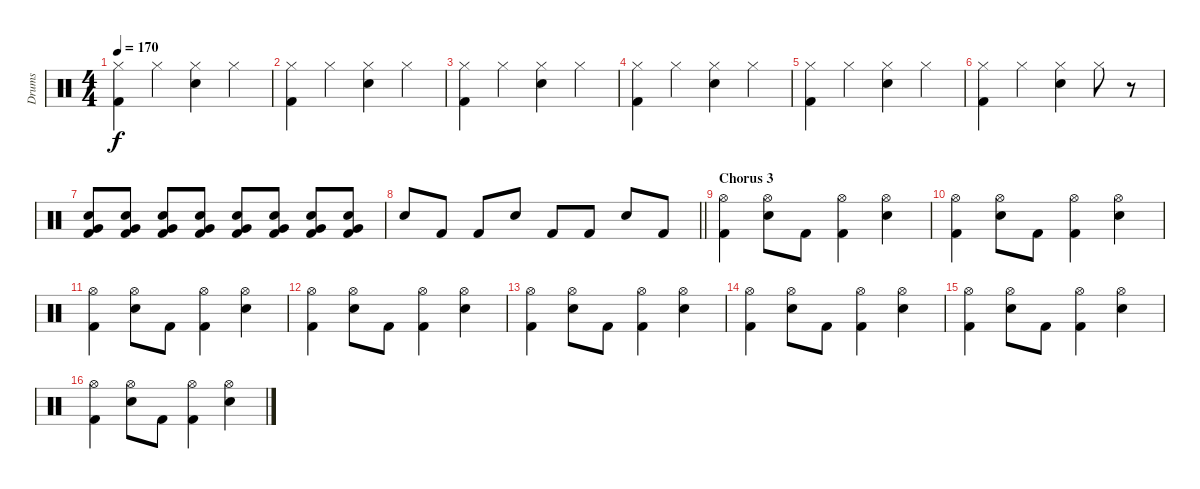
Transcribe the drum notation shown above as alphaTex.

\track ("Drums" "Drums") {instrument percussion}
\staff {score}
\articulation defaults
\ts (4 4)
\tempo 170
\clef neutral
\ks c
("Hi-Hat (closed)" "Kick (hit) 2").4{dy f} "Hi-Hat (closed)".4 ("Hi-Hat (closed)" "Electric Snare (hit)").4 "Hi-Hat (closed)".4 |
("Hi-Hat (closed)" "Kick (hit) 2").4 "Hi-Hat (closed)".4 ("Hi-Hat (closed)" "Electric Snare (hit)").4 "Hi-Hat (closed)".4 |
("Hi-Hat (closed)" "Kick (hit) 2").4 "Hi-Hat (closed)".4 ("Hi-Hat (closed)" "Electric Snare (hit)").4 "Hi-Hat (closed)".4 |
("Hi-Hat (closed)" "Kick (hit) 2").4 "Hi-Hat (closed)".4 ("Hi-Hat (closed)" "Electric Snare (hit)").4 "Hi-Hat (closed)".4 |
("Hi-Hat (closed)" "Kick (hit) 2").4 "Hi-Hat (closed)".4 ("Hi-Hat (closed)" "Electric Snare (hit)").4 "Hi-Hat (closed)".4 |
("Hi-Hat (closed)" "Kick (hit) 2").4 "Hi-Hat (closed)".4 ("Hi-Hat (closed)" "Electric Snare (hit)").4 "Hi-Hat (closed)".8 r.8{volume 0} |
("Very Low Tom (hit)" "Electric Snare (hit)" "Kick (hit) 2").8{volume 16} ("Very Low Tom (hit)" "Electric Snare (hit)" "Kick (hit) 2").8 ("Very Low Tom (hit)" "Electric Snare (hit)" "Kick (hit) 2").8 ("Very Low Tom (hit)" "Electric Snare (hit)" "Kick (hit) 2").8 ("Very Low Tom (hit)" "Electric Snare (hit)" "Kick (hit) 2").8 ("Very Low Tom (hit)" "Electric Snare (hit)" "Kick (hit) 2").8 ("Very Low Tom (hit)" "Electric Snare (hit)" "Kick (hit) 2").8 ("Very Low Tom (hit)" "Electric Snare (hit)" "Kick (hit) 2").8 |
\barLineRight lightlight "Electric Snare (hit)".8 "Kick (hit) 2".8 "Kick (hit) 2".8 "Electric Snare (hit)".8 "Kick (hit) 2".8 "Kick (hit) 2".8 "Electric Snare (hit)".8 "Kick (hit) 2".8
|
\section ("" "Chorus 3")
("Hi-Hat (open)" "Kick (hit) 2").4 ("Hi-Hat (open)" "Electric Snare (hit)").8 "Kick (hit) 2".8 ("Hi-Hat (open)" "Kick (hit) 2").4 ("Hi-Hat (open)" "Electric Snare (hit)").4 |
("Hi-Hat (open)" "Kick (hit) 2").4 ("Hi-Hat (open)" "Electric Snare (hit)").8 "Kick (hit) 2".8 ("Hi-Hat (open)" "Kick (hit) 2").4 ("Hi-Hat (open)" "Electric Snare (hit)").4 |
("Hi-Hat (open)" "Kick (hit) 2").4 ("Hi-Hat (open)" "Electric Snare (hit)").8 "Kick (hit) 2".8 ("Hi-Hat (open)" "Kick (hit) 2").4 ("Hi-Hat (open)" "Electric Snare (hit)").4 |
("Hi-Hat (open)" "Kick (hit) 2").4 ("Hi-Hat (open)" "Electric Snare (hit)").8 "Kick (hit) 2".8 ("Hi-Hat (open)" "Kick (hit) 2").4 ("Hi-Hat (open)" "Electric Snare (hit)").4 |
("Hi-Hat (open)" "Kick (hit) 2").4 ("Hi-Hat (open)" "Electric Snare (hit)").8 "Kick (hit) 2".8 ("Hi-Hat (open)" "Kick (hit) 2").4 ("Hi-Hat (open)" "Electric Snare (hit)").4 |
("Hi-Hat (open)" "Kick (hit) 2").4 ("Hi-Hat (open)" "Electric Snare (hit)").8 "Kick (hit) 2".8 ("Hi-Hat (open)" "Kick (hit) 2").4 ("Hi-Hat (open)" "Electric Snare (hit)").4 |
("Hi-Hat (open)" "Kick (hit) 2").4 ("Hi-Hat (open)" "Electric Snare (hit)").8 "Kick (hit) 2".8 ("Hi-Hat (open)" "Kick (hit) 2").4 ("Hi-Hat (open)" "Electric Snare (hit)").4 |
("Hi-Hat (open)" "Kick (hit) 2").4 ("Hi-Hat (open)" "Electric Snare (hit)").8 "Kick (hit) 2".8 ("Hi-Hat (open)" "Kick (hit) 2").4 ("Hi-Hat (open)" "Electric Snare (hit)").4
